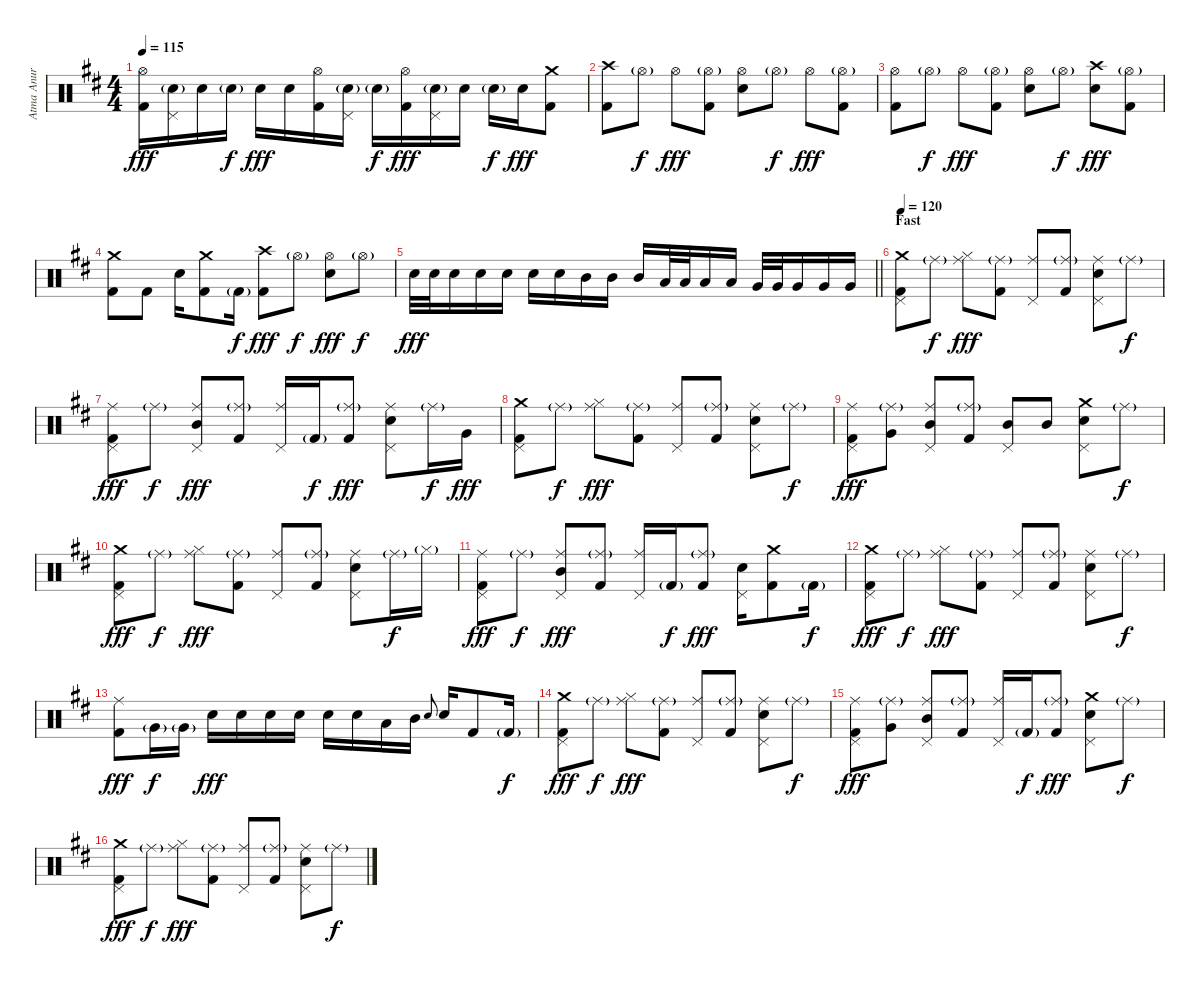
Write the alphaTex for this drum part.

\track ("Atma Anur" "Atma Anur") {instrument percussion}
\staff {score}
\articulation defaults
\ts (4 4)
\tempo 115
\clef neutral
\ks bminor
("Hi-Hat (open)" "Kick (hit) 2").16{dy fff} ("Electric Snare (hit)"{g} "Pedal Hi-Hat (hit)").16 "Electric Snare (hit)".16 "Electric Snare (hit)"{g}.16{dy f} "Electric Snare (hit)".16{dy fff} "Electric Snare (hit)".16 ("Hi-Hat (open)" "Kick (hit) 2").16 ("Electric Snare (hit)"{g} "Pedal Hi-Hat (hit)").16 "Electric Snare (hit)"{g}.16{dy f} ("Hi-Hat (open)" "Kick (hit) 2").16{dy fff} ("Electric Snare (hit)"{g} "Pedal Hi-Hat (hit)").16 "Electric Snare (hit)".16 "Electric Snare (hit)"{g}.16{dy f} "Electric Snare (hit)".16{dy fff} ("Crash medium (hit)" "Kick (hit) 2").8 |
("Crash high (hit)" "Kick (hit) 2").8 "Hi-Hat (open)"{g}.8{dy f} "Hi-Hat (open)".8{dy fff} ("Hi-Hat (open)"{g} "Kick (hit) 2").8 ("Hi-Hat (open)" "Electric Snare (hit)").8 "Hi-Hat (open)"{g}.8{dy f} "Hi-Hat (open)".8{dy fff} ("Hi-Hat (open)"{g} "Kick (hit) 2").8 |
("Hi-Hat (open)" "Kick (hit) 2").8 "Hi-Hat (open)"{g}.8{dy f} "Hi-Hat (open)".8{dy fff} ("Hi-Hat (open)"{g} "Kick (hit) 2").8 ("Hi-Hat (open)" "Electric Snare (hit)").8 "Hi-Hat (open)"{g}.8{dy f} ("Crash high (hit)" "Electric Snare (hit)").8{dy fff} ("Hi-Hat (open)"{g} "Kick (hit) 2").8 |
("Crash medium (hit)" "Kick (hit) 2").8 "Kick (hit) 2".8 "Electric Snare (hit)".16 ("Crash medium (hit)" "Kick (hit) 2").8 "Kick (hit) 2"{g}.16{dy f} ("Crash high (hit)" "Kick (hit) 2").8{dy fff} "Hi-Hat (open)"{g}.8{dy f} ("Hi-Hat (open)" "Electric Snare (hit)").8{dy fff} "Hi-Hat (open)"{g}.8{dy f} |
\barLineRight lightlight "Electric Snare (hit)".32{dy fff} "Electric Snare (hit)".32 "Electric Snare (hit)".16 "Electric Snare (hit)".16 "Electric Snare (hit)".16 "Electric Snare (hit)".16 "Electric Snare (hit)".16 "Mid Tom (hit)".16 "Mid Tom (hit)".16 "Mid Tom (hit)".16 "Low Tom (hit)".32 "Low Tom (hit)".32 "Low Tom (hit)".16 "Low Tom (hit)".16 "Very Low Tom (hit)".32 "Very Low Tom (hit)".32 "Very Low Tom (hit)".16 "Very Low Tom (hit)".16 "Very Low Tom (hit)".16
|
\section ("" "Fast")
\tempo 120
("Crash medium (hit)" "Pedal Hi-Hat (hit)" "Kick (hit) 2").8 "Ride (middle)"{g}.8{dy f} ("Ride (middle)" "Hi-Hat (closed)").8{dy fff} ("Ride (middle)"{g} "Kick (hit) 2").8 ("Ride (middle)" "Pedal Hi-Hat (hit)").8 ("Ride (middle)"{g} "Kick (hit) 2").8 ("Ride (middle)" "Electric Snare (hit)" "Pedal Hi-Hat (hit)").8 "Ride (middle)"{g}.8{dy f} |
("Ride (middle)" "Pedal Hi-Hat (hit)" "Kick (hit) 2").8{dy fff} "Ride (middle)"{g}.8{dy f} ("Ride (middle)" "Mid Tom (hit)" "Pedal Hi-Hat (hit)").8{dy fff} ("Ride (middle)"{g} "Kick (hit) 2").8 ("Ride (middle)" "Pedal Hi-Hat (hit)").16 "Kick (hit) 2"{g}.16{dy f} ("Ride (middle)"{g} "Kick (hit) 2").8{dy fff} ("Ride (middle)" "Electric Snare (hit)" "Pedal Hi-Hat (hit)").8 "Ride (middle)"{g}.16{dy f} "Very Low Tom (hit)".16{dy fff} |
("Crash medium (hit)" "Pedal Hi-Hat (hit)" "Kick (hit) 2").8 "Ride (middle)"{g}.8{dy f} ("Ride (middle)" "Hi-Hat (closed)").8{dy fff} ("Ride (middle)"{g} "Kick (hit) 2").8 ("Ride (middle)" "Pedal Hi-Hat (hit)").8 ("Ride (middle)"{g} "Kick (hit) 2").8 ("Ride (middle)" "Electric Snare (hit)" "Pedal Hi-Hat (hit)").8 "Ride (middle)"{g}.8{dy f} |
("Ride (middle)" "Pedal Hi-Hat (hit)" "Kick (hit) 2").8{dy fff} ("Ride (middle)"{g} "Very Low Tom (hit)").8 ("Ride (middle)" "Mid Tom (hit)" "Pedal Hi-Hat (hit)").8 ("Ride (middle)"{g} "Kick (hit) 2").8 ("Mid Tom (hit)" "Pedal Hi-Hat (hit)").8 "Mid Tom (hit)".8 ("Crash medium (hit)" "Electric Snare (hit)" "Pedal Hi-Hat (hit)").8 "Ride (middle)"{g}.8{dy f} |
("Crash medium (hit)" "Pedal Hi-Hat (hit)" "Kick (hit) 2").8{dy fff} "Ride (middle)"{g}.8{dy f} ("Ride (middle)" "Hi-Hat (closed)").8{dy fff} ("Ride (middle)"{g} "Kick (hit) 2").8 ("Ride (middle)" "Pedal Hi-Hat (hit)").8 ("Ride (middle)"{g} "Kick (hit) 2").8 ("Ride (middle)" "Electric Snare (hit)" "Pedal Hi-Hat (hit)").8 "Ride (middle)"{g}.16{dy f} "Hi-Hat (closed)"{g}.16 |
("Ride (middle)" "Pedal Hi-Hat (hit)" "Kick (hit) 2").8{dy fff} "Ride (middle)"{g}.8{dy f} ("Ride (middle)" "Mid Tom (hit)" "Pedal Hi-Hat (hit)").8{dy fff} ("Ride (middle)"{g} "Kick (hit) 2").8 ("Ride (middle)" "Pedal Hi-Hat (hit)").16 "Kick (hit) 2"{g}.16{dy f} ("Ride (middle)"{g} "Kick (hit) 2").8{dy fff} ("Electric Snare (hit)" "Pedal Hi-Hat (hit)").16 ("Crash medium (hit)" "Kick (hit) 2").8 "Kick (hit) 2"{g}.16{dy f} |
("Crash medium (hit)" "Pedal Hi-Hat (hit)" "Kick (hit) 2").8{dy fff} "Ride (middle)"{g}.8{dy f} ("Ride (middle)" "Hi-Hat (closed)").8{dy fff} ("Ride (middle)"{g} "Kick (hit) 2").8 ("Ride (middle)" "Pedal Hi-Hat (hit)").8 ("Ride (middle)"{g} "Kick (hit) 2").8 ("Ride (middle)" "Electric Snare (hit)" "Pedal Hi-Hat (hit)").8 "Ride (middle)"{g}.8{dy f} |
("Ride (middle)" "Kick (hit) 2").8{dy fff} "Very Low Tom (hit)"{g}.16{dy f} "Very Low Tom (hit)"{g}.16 "Electric Snare (hit)".16{dy fff} "Electric Snare (hit)".16 "Electric Snare (hit)".16 "Electric Snare (hit)".16 "Electric Snare (hit)".16 "Electric Snare (hit)".16 "Low Tom (hit)".16 "Mid Tom (hit)".16 "Electric Snare (hit)".8{gr onbeat} "Electric Snare (hit)".16 "Kick (hit) 2".8 "Kick (hit) 2"{g}.16{dy f} |
("Crash medium (hit)" "Pedal Hi-Hat (hit)" "Kick (hit) 2").8{dy fff} "Ride (middle)"{g}.8{dy f} ("Ride (middle)" "Hi-Hat (closed)").8{dy fff} ("Ride (middle)"{g} "Kick (hit) 2").8 ("Ride (middle)" "Pedal Hi-Hat (hit)").8 ("Ride (middle)"{g} "Kick (hit) 2").8 ("Ride (middle)" "Electric Snare (hit)" "Pedal Hi-Hat (hit)").8 "Ride (middle)"{g}.8{dy f} |
("Ride (middle)" "Pedal Hi-Hat (hit)" "Kick (hit) 2").8{dy fff} ("Ride (middle)"{g} "Very Low Tom (hit)").8 ("Ride (middle)" "Mid Tom (hit)" "Pedal Hi-Hat (hit)").8 ("Ride (middle)"{g} "Kick (hit) 2").8 ("Ride (middle)" "Pedal Hi-Hat (hit)").16 "Kick (hit) 2"{g}.16{dy f} ("Ride (middle)"{g} "Kick (hit) 2").8{dy fff} ("Crash medium (hit)" "Electric Snare (hit)" "Pedal Hi-Hat (hit)").8 "Ride (middle)"{g}.8{dy f} |
("Crash medium (hit)" "Pedal Hi-Hat (hit)" "Kick (hit) 2").8{dy fff} "Ride (middle)"{g}.8{dy f} ("Ride (middle)" "Hi-Hat (closed)").8{dy fff} ("Ride (middle)"{g} "Kick (hit) 2").8 ("Ride (middle)" "Pedal Hi-Hat (hit)").8 ("Ride (middle)"{g} "Kick (hit) 2").8 ("Ride (middle)" "Electric Snare (hit)" "Pedal Hi-Hat (hit)").8 "Ride (middle)"{g}.8{dy f}
